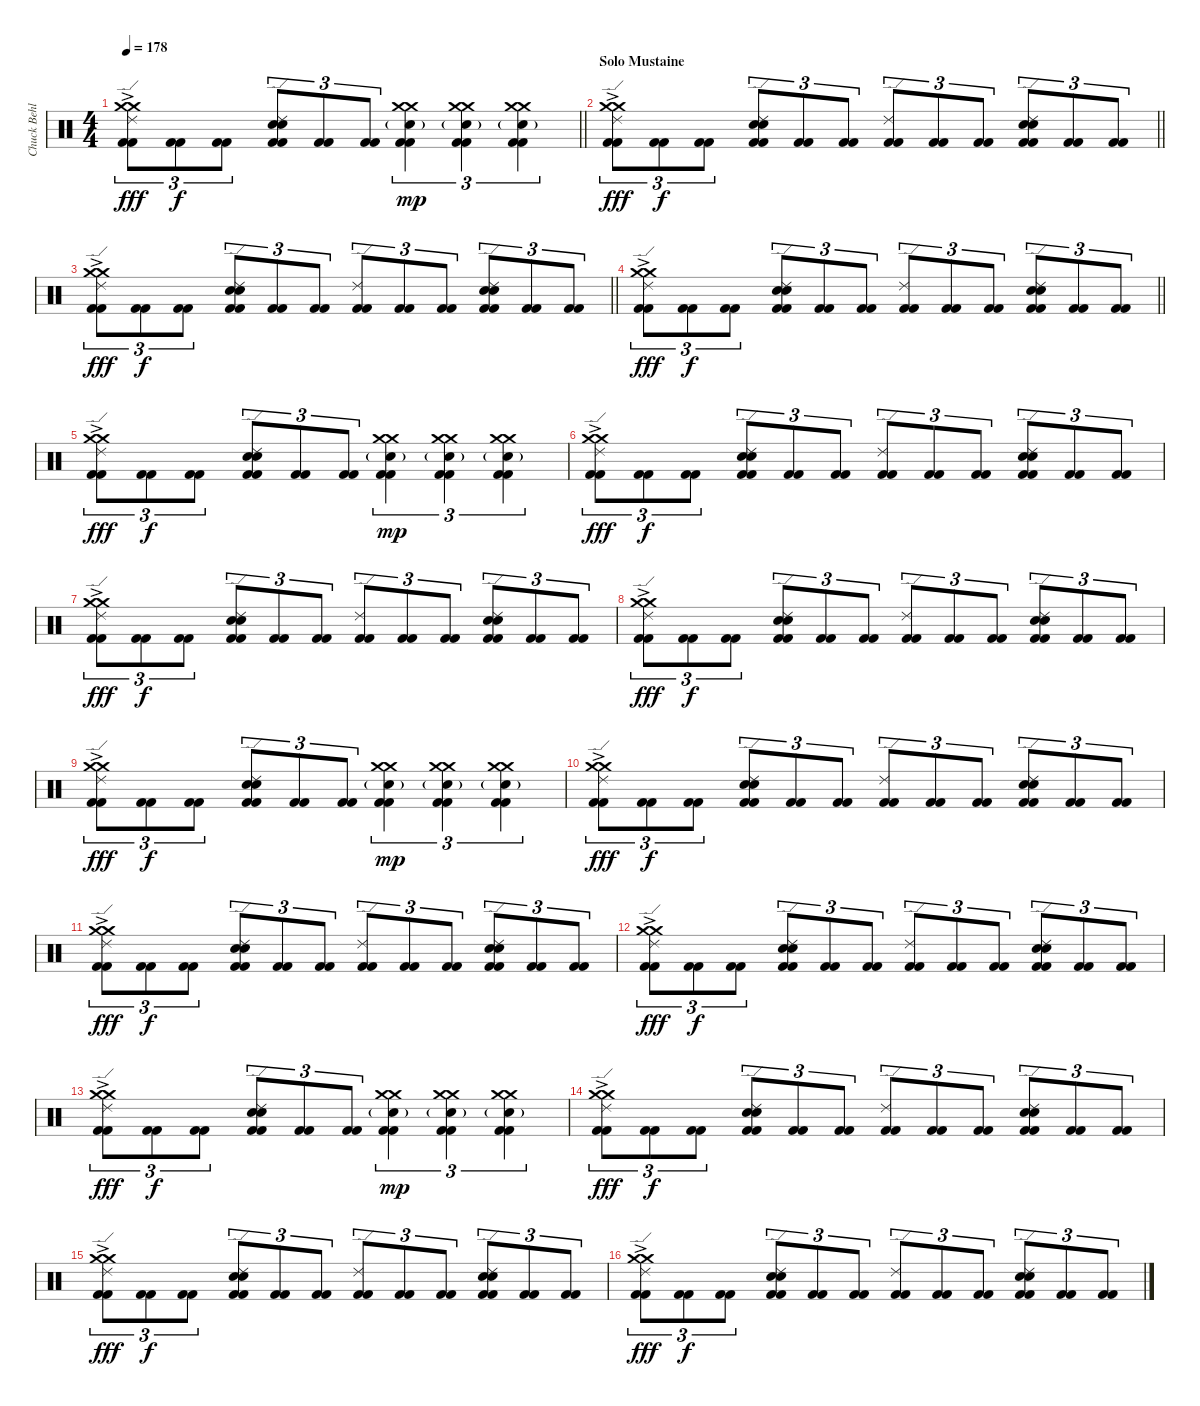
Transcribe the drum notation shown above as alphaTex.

\track ("Chuck Behler" "Chuck Behl") {instrument percussion}
\staff {score}
\articulation defaults
\ts (4 4)
\tempo 178
\clef neutral
\barLineRight lightlight
\ks c
("Crash medium (hit)"{ac} "Crash medium (hit)"{ac} "Ride (edge) 2" "Kick (hit) 2" "Kick (hit) 2").8{tu (3 2) dy fff} ("Kick (hit) 2" "Kick (hit) 2").8{tu (3 2) dy f} ("Kick (hit) 2" "Kick (hit) 2").8{tu (3 2)} ("Ride (edge) 2" "Snare (hit) 2" "Electric Snare (hit)" "Kick (hit) 2" "Kick (hit) 2").8{tu (3 2)} ("Kick (hit) 2" "Kick (hit) 2").8{tu (3 2)} ("Kick (hit) 2" "Kick (hit) 2").8{tu (3 2)} ("Crash medium (hit)" "Crash medium (hit)" "Snare (hit) 2"{g} "Kick (hit) 2" "Kick (hit) 2").4{tu (3 2) dy mp} ("Crash medium (hit)" "Crash medium (hit)" "Snare (hit) 2"{g} "Kick (hit) 2" "Kick (hit) 2").4{tu (3 2)} ("Crash medium (hit)" "Crash medium (hit)" "Snare (hit) 2"{g} "Kick (hit) 2" "Kick (hit) 2").4{tu (3 2)} |
\section ("" "Solo Mustaine")
\barLineRight lightlight
("Crash medium (hit)"{ac} "Crash medium (hit)"{ac} "Ride (edge) 2" "Kick (hit) 2" "Kick (hit) 2").8{tu (3 2) dy fff} ("Kick (hit) 2" "Kick (hit) 2").8{tu (3 2) dy f} ("Kick (hit) 2" "Kick (hit) 2").8{tu (3 2)} ("Ride (edge) 2" "Snare (hit) 2" "Electric Snare (hit)" "Kick (hit) 2" "Kick (hit) 2").8{tu (3 2)} ("Kick (hit) 2" "Kick (hit) 2").8{tu (3 2)} ("Kick (hit) 2" "Kick (hit) 2").8{tu (3 2)} ("Ride (edge) 2" "Kick (hit) 2" "Kick (hit) 2").8{tu (3 2)} ("Kick (hit) 2" "Kick (hit) 2").8{tu (3 2)} ("Kick (hit) 2" "Kick (hit) 2").8{tu (3 2)} ("Ride (edge) 2" "Snare (hit) 2" "Electric Snare (hit)" "Kick (hit) 2" "Kick (hit) 2").8{tu (3 2)} ("Kick (hit) 2" "Kick (hit) 2").8{tu (3 2)} ("Kick (hit) 2" "Kick (hit) 2").8{tu (3 2)} |
\section ("" "")
\barLineRight lightlight
("Crash medium (hit)"{ac} "Crash medium (hit)"{ac} "Ride (edge) 2" "Kick (hit) 2" "Kick (hit) 2").8{tu (3 2) dy fff} ("Kick (hit) 2" "Kick (hit) 2").8{tu (3 2) dy f} ("Kick (hit) 2" "Kick (hit) 2").8{tu (3 2)} ("Ride (edge) 2" "Snare (hit) 2" "Electric Snare (hit)" "Kick (hit) 2" "Kick (hit) 2").8{tu (3 2)} ("Kick (hit) 2" "Kick (hit) 2").8{tu (3 2)} ("Kick (hit) 2" "Kick (hit) 2").8{tu (3 2)} ("Ride (edge) 2" "Kick (hit) 2" "Kick (hit) 2").8{tu (3 2)} ("Kick (hit) 2" "Kick (hit) 2").8{tu (3 2)} ("Kick (hit) 2" "Kick (hit) 2").8{tu (3 2)} ("Ride (edge) 2" "Snare (hit) 2" "Electric Snare (hit)" "Kick (hit) 2" "Kick (hit) 2").8{tu (3 2)} ("Kick (hit) 2" "Kick (hit) 2").8{tu (3 2)} ("Kick (hit) 2" "Kick (hit) 2").8{tu (3 2)} |
\section ("" "")
\barLineRight lightlight
("Crash medium (hit)"{ac} "Crash medium (hit)"{ac} "Ride (edge) 2" "Kick (hit) 2" "Kick (hit) 2").8{tu (3 2) dy fff} ("Kick (hit) 2" "Kick (hit) 2").8{tu (3 2) dy f} ("Kick (hit) 2" "Kick (hit) 2").8{tu (3 2)} ("Ride (edge) 2" "Snare (hit) 2" "Electric Snare (hit)" "Kick (hit) 2" "Kick (hit) 2").8{tu (3 2)} ("Kick (hit) 2" "Kick (hit) 2").8{tu (3 2)} ("Kick (hit) 2" "Kick (hit) 2").8{tu (3 2)} ("Ride (edge) 2" "Kick (hit) 2" "Kick (hit) 2").8{tu (3 2)} ("Kick (hit) 2" "Kick (hit) 2").8{tu (3 2)} ("Kick (hit) 2" "Kick (hit) 2").8{tu (3 2)} ("Ride (edge) 2" "Snare (hit) 2" "Electric Snare (hit)" "Kick (hit) 2" "Kick (hit) 2").8{tu (3 2)} ("Kick (hit) 2" "Kick (hit) 2").8{tu (3 2)} ("Kick (hit) 2" "Kick (hit) 2").8{tu (3 2)} |
\section ("" "")
("Crash medium (hit)"{ac} "Crash medium (hit)"{ac} "Ride (edge) 2" "Kick (hit) 2" "Kick (hit) 2").8{tu (3 2) dy fff} ("Kick (hit) 2" "Kick (hit) 2").8{tu (3 2) dy f} ("Kick (hit) 2" "Kick (hit) 2").8{tu (3 2)} ("Ride (edge) 2" "Snare (hit) 2" "Electric Snare (hit)" "Kick (hit) 2" "Kick (hit) 2").8{tu (3 2)} ("Kick (hit) 2" "Kick (hit) 2").8{tu (3 2)} ("Kick (hit) 2" "Kick (hit) 2").8{tu (3 2)} ("Crash medium (hit)" "Crash medium (hit)" "Snare (hit) 2"{g} "Kick (hit) 2" "Kick (hit) 2").4{tu (3 2) dy mp} ("Crash medium (hit)" "Crash medium (hit)" "Snare (hit) 2"{g} "Kick (hit) 2" "Kick (hit) 2").4{tu (3 2)} ("Crash medium (hit)" "Crash medium (hit)" "Snare (hit) 2"{g} "Kick (hit) 2" "Kick (hit) 2").4{tu (3 2)} |
("Crash medium (hit)"{ac} "Crash medium (hit)"{ac} "Ride (edge) 2" "Kick (hit) 2" "Kick (hit) 2").8{tu (3 2) dy fff} ("Kick (hit) 2" "Kick (hit) 2").8{tu (3 2) dy f} ("Kick (hit) 2" "Kick (hit) 2").8{tu (3 2)} ("Ride (edge) 2" "Snare (hit) 2" "Electric Snare (hit)" "Kick (hit) 2" "Kick (hit) 2").8{tu (3 2)} ("Kick (hit) 2" "Kick (hit) 2").8{tu (3 2)} ("Kick (hit) 2" "Kick (hit) 2").8{tu (3 2)} ("Ride (edge) 2" "Kick (hit) 2" "Kick (hit) 2").8{tu (3 2)} ("Kick (hit) 2" "Kick (hit) 2").8{tu (3 2)} ("Kick (hit) 2" "Kick (hit) 2").8{tu (3 2)} ("Ride (edge) 2" "Snare (hit) 2" "Electric Snare (hit)" "Kick (hit) 2" "Kick (hit) 2").8{tu (3 2)} ("Kick (hit) 2" "Kick (hit) 2").8{tu (3 2)} ("Kick (hit) 2" "Kick (hit) 2").8{tu (3 2)} |
("Crash medium (hit)"{ac} "Crash medium (hit)"{ac} "Ride (edge) 2" "Kick (hit) 2" "Kick (hit) 2").8{tu (3 2) dy fff} ("Kick (hit) 2" "Kick (hit) 2").8{tu (3 2) dy f} ("Kick (hit) 2" "Kick (hit) 2").8{tu (3 2)} ("Ride (edge) 2" "Snare (hit) 2" "Electric Snare (hit)" "Kick (hit) 2" "Kick (hit) 2").8{tu (3 2)} ("Kick (hit) 2" "Kick (hit) 2").8{tu (3 2)} ("Kick (hit) 2" "Kick (hit) 2").8{tu (3 2)} ("Ride (edge) 2" "Kick (hit) 2" "Kick (hit) 2").8{tu (3 2)} ("Kick (hit) 2" "Kick (hit) 2").8{tu (3 2)} ("Kick (hit) 2" "Kick (hit) 2").8{tu (3 2)} ("Ride (edge) 2" "Snare (hit) 2" "Electric Snare (hit)" "Kick (hit) 2" "Kick (hit) 2").8{tu (3 2)} ("Kick (hit) 2" "Kick (hit) 2").8{tu (3 2)} ("Kick (hit) 2" "Kick (hit) 2").8{tu (3 2)} |
("Crash medium (hit)"{ac} "Crash medium (hit)"{ac} "Ride (edge) 2" "Kick (hit) 2" "Kick (hit) 2").8{tu (3 2) dy fff} ("Kick (hit) 2" "Kick (hit) 2").8{tu (3 2) dy f} ("Kick (hit) 2" "Kick (hit) 2").8{tu (3 2)} ("Ride (edge) 2" "Snare (hit) 2" "Electric Snare (hit)" "Kick (hit) 2" "Kick (hit) 2").8{tu (3 2)} ("Kick (hit) 2" "Kick (hit) 2").8{tu (3 2)} ("Kick (hit) 2" "Kick (hit) 2").8{tu (3 2)} ("Ride (edge) 2" "Kick (hit) 2" "Kick (hit) 2").8{tu (3 2)} ("Kick (hit) 2" "Kick (hit) 2").8{tu (3 2)} ("Kick (hit) 2" "Kick (hit) 2").8{tu (3 2)} ("Ride (edge) 2" "Snare (hit) 2" "Electric Snare (hit)" "Kick (hit) 2" "Kick (hit) 2").8{tu (3 2)} ("Kick (hit) 2" "Kick (hit) 2").8{tu (3 2)} ("Kick (hit) 2" "Kick (hit) 2").8{tu (3 2)} |
("Crash medium (hit)"{ac} "Crash medium (hit)"{ac} "Ride (edge) 2" "Kick (hit) 2" "Kick (hit) 2").8{tu (3 2) dy fff} ("Kick (hit) 2" "Kick (hit) 2").8{tu (3 2) dy f} ("Kick (hit) 2" "Kick (hit) 2").8{tu (3 2)} ("Ride (edge) 2" "Snare (hit) 2" "Electric Snare (hit)" "Kick (hit) 2" "Kick (hit) 2").8{tu (3 2)} ("Kick (hit) 2" "Kick (hit) 2").8{tu (3 2)} ("Kick (hit) 2" "Kick (hit) 2").8{tu (3 2)} ("Crash medium (hit)" "Crash medium (hit)" "Snare (hit) 2"{g} "Kick (hit) 2" "Kick (hit) 2").4{tu (3 2) dy mp} ("Crash medium (hit)" "Crash medium (hit)" "Snare (hit) 2"{g} "Kick (hit) 2" "Kick (hit) 2").4{tu (3 2)} ("Crash medium (hit)" "Crash medium (hit)" "Snare (hit) 2"{g} "Kick (hit) 2" "Kick (hit) 2").4{tu (3 2)} |
("Crash medium (hit)"{ac} "Crash medium (hit)"{ac} "Ride (edge) 2" "Kick (hit) 2" "Kick (hit) 2").8{tu (3 2) dy fff} ("Kick (hit) 2" "Kick (hit) 2").8{tu (3 2) dy f} ("Kick (hit) 2" "Kick (hit) 2").8{tu (3 2)} ("Ride (edge) 2" "Snare (hit) 2" "Electric Snare (hit)" "Kick (hit) 2" "Kick (hit) 2").8{tu (3 2)} ("Kick (hit) 2" "Kick (hit) 2").8{tu (3 2)} ("Kick (hit) 2" "Kick (hit) 2").8{tu (3 2)} ("Ride (edge) 2" "Kick (hit) 2" "Kick (hit) 2").8{tu (3 2)} ("Kick (hit) 2" "Kick (hit) 2").8{tu (3 2)} ("Kick (hit) 2" "Kick (hit) 2").8{tu (3 2)} ("Ride (edge) 2" "Snare (hit) 2" "Electric Snare (hit)" "Kick (hit) 2" "Kick (hit) 2").8{tu (3 2)} ("Kick (hit) 2" "Kick (hit) 2").8{tu (3 2)} ("Kick (hit) 2" "Kick (hit) 2").8{tu (3 2)} |
("Crash medium (hit)"{ac} "Crash medium (hit)"{ac} "Ride (edge) 2" "Kick (hit) 2" "Kick (hit) 2").8{tu (3 2) dy fff} ("Kick (hit) 2" "Kick (hit) 2").8{tu (3 2) dy f} ("Kick (hit) 2" "Kick (hit) 2").8{tu (3 2)} ("Ride (edge) 2" "Snare (hit) 2" "Electric Snare (hit)" "Kick (hit) 2" "Kick (hit) 2").8{tu (3 2)} ("Kick (hit) 2" "Kick (hit) 2").8{tu (3 2)} ("Kick (hit) 2" "Kick (hit) 2").8{tu (3 2)} ("Ride (edge) 2" "Kick (hit) 2" "Kick (hit) 2").8{tu (3 2)} ("Kick (hit) 2" "Kick (hit) 2").8{tu (3 2)} ("Kick (hit) 2" "Kick (hit) 2").8{tu (3 2)} ("Ride (edge) 2" "Snare (hit) 2" "Electric Snare (hit)" "Kick (hit) 2" "Kick (hit) 2").8{tu (3 2)} ("Kick (hit) 2" "Kick (hit) 2").8{tu (3 2)} ("Kick (hit) 2" "Kick (hit) 2").8{tu (3 2)} |
("Crash medium (hit)"{ac} "Crash medium (hit)"{ac} "Ride (edge) 2" "Kick (hit) 2" "Kick (hit) 2").8{tu (3 2) dy fff} ("Kick (hit) 2" "Kick (hit) 2").8{tu (3 2) dy f} ("Kick (hit) 2" "Kick (hit) 2").8{tu (3 2)} ("Ride (edge) 2" "Snare (hit) 2" "Electric Snare (hit)" "Kick (hit) 2" "Kick (hit) 2").8{tu (3 2)} ("Kick (hit) 2" "Kick (hit) 2").8{tu (3 2)} ("Kick (hit) 2" "Kick (hit) 2").8{tu (3 2)} ("Ride (edge) 2" "Kick (hit) 2" "Kick (hit) 2").8{tu (3 2)} ("Kick (hit) 2" "Kick (hit) 2").8{tu (3 2)} ("Kick (hit) 2" "Kick (hit) 2").8{tu (3 2)} ("Ride (edge) 2" "Snare (hit) 2" "Electric Snare (hit)" "Kick (hit) 2" "Kick (hit) 2").8{tu (3 2)} ("Kick (hit) 2" "Kick (hit) 2").8{tu (3 2)} ("Kick (hit) 2" "Kick (hit) 2").8{tu (3 2)} |
("Crash medium (hit)"{ac} "Crash medium (hit)"{ac} "Ride (edge) 2" "Kick (hit) 2" "Kick (hit) 2").8{tu (3 2) dy fff} ("Kick (hit) 2" "Kick (hit) 2").8{tu (3 2) dy f} ("Kick (hit) 2" "Kick (hit) 2").8{tu (3 2)} ("Ride (edge) 2" "Snare (hit) 2" "Electric Snare (hit)" "Kick (hit) 2" "Kick (hit) 2").8{tu (3 2)} ("Kick (hit) 2" "Kick (hit) 2").8{tu (3 2)} ("Kick (hit) 2" "Kick (hit) 2").8{tu (3 2)} ("Crash medium (hit)" "Crash medium (hit)" "Snare (hit) 2"{g} "Kick (hit) 2" "Kick (hit) 2").4{tu (3 2) dy mp} ("Crash medium (hit)" "Crash medium (hit)" "Snare (hit) 2"{g} "Kick (hit) 2" "Kick (hit) 2").4{tu (3 2)} ("Crash medium (hit)" "Crash medium (hit)" "Snare (hit) 2"{g} "Kick (hit) 2" "Kick (hit) 2").4{tu (3 2)} |
("Crash medium (hit)"{ac} "Crash medium (hit)"{ac} "Ride (edge) 2" "Kick (hit) 2" "Kick (hit) 2").8{tu (3 2) dy fff} ("Kick (hit) 2" "Kick (hit) 2").8{tu (3 2) dy f} ("Kick (hit) 2" "Kick (hit) 2").8{tu (3 2)} ("Ride (edge) 2" "Snare (hit) 2" "Electric Snare (hit)" "Kick (hit) 2" "Kick (hit) 2").8{tu (3 2)} ("Kick (hit) 2" "Kick (hit) 2").8{tu (3 2)} ("Kick (hit) 2" "Kick (hit) 2").8{tu (3 2)} ("Ride (edge) 2" "Kick (hit) 2" "Kick (hit) 2").8{tu (3 2)} ("Kick (hit) 2" "Kick (hit) 2").8{tu (3 2)} ("Kick (hit) 2" "Kick (hit) 2").8{tu (3 2)} ("Ride (edge) 2" "Snare (hit) 2" "Electric Snare (hit)" "Kick (hit) 2" "Kick (hit) 2").8{tu (3 2)} ("Kick (hit) 2" "Kick (hit) 2").8{tu (3 2)} ("Kick (hit) 2" "Kick (hit) 2").8{tu (3 2)} |
("Crash medium (hit)"{ac} "Crash medium (hit)"{ac} "Ride (edge) 2" "Kick (hit) 2" "Kick (hit) 2").8{tu (3 2) dy fff} ("Kick (hit) 2" "Kick (hit) 2").8{tu (3 2) dy f} ("Kick (hit) 2" "Kick (hit) 2").8{tu (3 2)} ("Ride (edge) 2" "Snare (hit) 2" "Electric Snare (hit)" "Kick (hit) 2" "Kick (hit) 2").8{tu (3 2)} ("Kick (hit) 2" "Kick (hit) 2").8{tu (3 2)} ("Kick (hit) 2" "Kick (hit) 2").8{tu (3 2)} ("Ride (edge) 2" "Kick (hit) 2" "Kick (hit) 2").8{tu (3 2)} ("Kick (hit) 2" "Kick (hit) 2").8{tu (3 2)} ("Kick (hit) 2" "Kick (hit) 2").8{tu (3 2)} ("Ride (edge) 2" "Snare (hit) 2" "Electric Snare (hit)" "Kick (hit) 2" "Kick (hit) 2").8{tu (3 2)} ("Kick (hit) 2" "Kick (hit) 2").8{tu (3 2)} ("Kick (hit) 2" "Kick (hit) 2").8{tu (3 2)} |
("Crash medium (hit)"{ac} "Crash medium (hit)"{ac} "Ride (edge) 2" "Kick (hit) 2" "Kick (hit) 2").8{tu (3 2) dy fff} ("Kick (hit) 2" "Kick (hit) 2").8{tu (3 2) dy f} ("Kick (hit) 2" "Kick (hit) 2").8{tu (3 2)} ("Ride (edge) 2" "Snare (hit) 2" "Electric Snare (hit)" "Kick (hit) 2" "Kick (hit) 2").8{tu (3 2)} ("Kick (hit) 2" "Kick (hit) 2").8{tu (3 2)} ("Kick (hit) 2" "Kick (hit) 2").8{tu (3 2)} ("Ride (edge) 2" "Kick (hit) 2" "Kick (hit) 2").8{tu (3 2)} ("Kick (hit) 2" "Kick (hit) 2").8{tu (3 2)} ("Kick (hit) 2" "Kick (hit) 2").8{tu (3 2)} ("Ride (edge) 2" "Snare (hit) 2" "Electric Snare (hit)" "Kick (hit) 2" "Kick (hit) 2").8{tu (3 2)} ("Kick (hit) 2" "Kick (hit) 2").8{tu (3 2)} ("Kick (hit) 2" "Kick (hit) 2").8{tu (3 2)}
